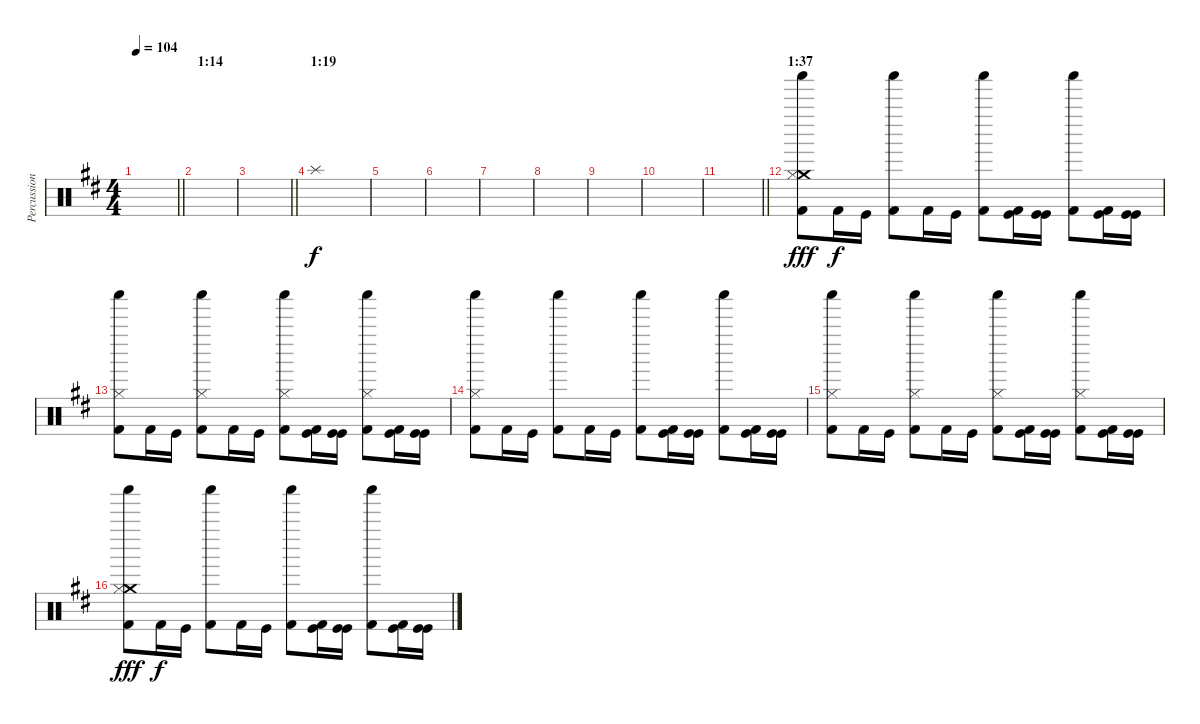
\track ("Percussion" "Percussion") {instrument percussion}
\staff {score}
\articulation defaults
\ts (4 4)
\tempo 104
\clef neutral
\barLineRight lightlight
\ks d
|
\section ("" "1:14")
|
\barLineRight lightlight
|
\section ("" "1:19")
"Splash (hit)".1 |
|
|
|
|
|
|
\barLineRight lightlight
|
\section ("" "1:37")
("Crash medium (hit)" "Shaker (hit)" "Hi-Hat (closed)" "Kick (hit) 2").8{dy fff} "Kick (hit) 2".16{dy f} "Kick (hit)".16 ("Shaker (hit)" "Kick (hit) 2").8 "Kick (hit) 2".16 "Kick (hit)".16 ("Shaker (hit)" "Kick (hit) 2").8 ("Kick (hit)" "Kick (hit) 2").16 ("Kick (hit)" "Kick (hit)").16 ("Shaker (hit)" "Kick (hit) 2").8 ("Kick (hit)" "Kick (hit) 2").16 ("Kick (hit)" "Kick (hit)").16 |
("Shaker (hit)" "Hi-Hat (closed)" "Kick (hit) 2").8 "Kick (hit) 2".16 "Kick (hit)".16 ("Shaker (hit)" "Hi-Hat (closed)" "Kick (hit) 2").8 "Kick (hit) 2".16 "Kick (hit)".16 ("Shaker (hit)" "Hi-Hat (closed)" "Kick (hit) 2").8 ("Kick (hit)" "Kick (hit) 2").16 ("Kick (hit)" "Kick (hit)").16 ("Shaker (hit)" "Hi-Hat (closed)" "Kick (hit) 2").8 ("Kick (hit)" "Kick (hit) 2").16 ("Kick (hit)" "Kick (hit)").16 |
("Shaker (hit)" "Hi-Hat (closed)" "Kick (hit) 2").8 "Kick (hit) 2".16 "Kick (hit)".16 ("Shaker (hit)" "Kick (hit) 2").8 "Kick (hit) 2".16 "Kick (hit)".16 ("Shaker (hit)" "Kick (hit) 2").8 ("Kick (hit)" "Kick (hit) 2").16 ("Kick (hit)" "Kick (hit)").16 ("Shaker (hit)" "Kick (hit) 2").8 ("Kick (hit)" "Kick (hit) 2").16 ("Kick (hit)" "Kick (hit)").16 |
("Shaker (hit)" "Hi-Hat (closed)" "Kick (hit) 2").8 "Kick (hit) 2".16 "Kick (hit)".16 ("Shaker (hit)" "Hi-Hat (closed)" "Kick (hit) 2").8 "Kick (hit) 2".16 "Kick (hit)".16 ("Shaker (hit)" "Hi-Hat (closed)" "Kick (hit) 2").8 ("Kick (hit)" "Kick (hit) 2").16 ("Kick (hit)" "Kick (hit)").16 ("Shaker (hit)" "Hi-Hat (closed)" "Kick (hit) 2").8 ("Kick (hit)" "Kick (hit) 2").16 ("Kick (hit)" "Kick (hit)").16 |
("Crash medium (hit)" "Shaker (hit)" "Hi-Hat (closed)" "Kick (hit) 2").8{dy fff} "Kick (hit) 2".16{dy f} "Kick (hit)".16 ("Shaker (hit)" "Kick (hit) 2").8 "Kick (hit) 2".16 "Kick (hit)".16 ("Shaker (hit)" "Kick (hit) 2").8 ("Kick (hit)" "Kick (hit) 2").16 ("Kick (hit)" "Kick (hit)").16 ("Shaker (hit)" "Kick (hit) 2").8 ("Kick (hit)" "Kick (hit) 2").16 ("Kick (hit)" "Kick (hit)").16
